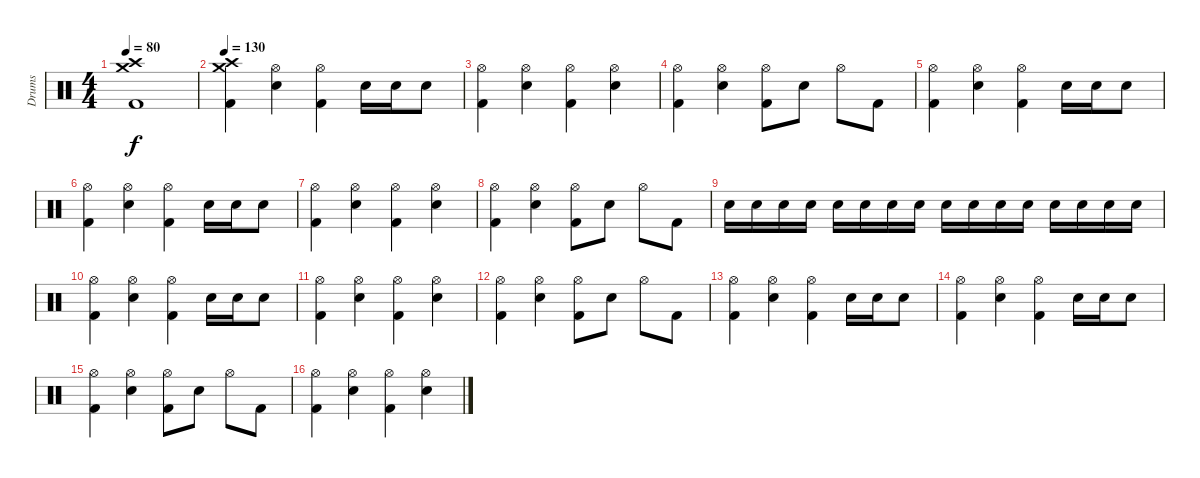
\track ("Drums" "Drums") {instrument percussion}
\staff {score}
\articulation defaults
\ts (4 4)
\tempo 80
\clef neutral
\ks c
("Crash medium (hit)" "Crash high (hit)" "Kick (hit) 2").1{dy f} |
\tempo 130
("Crash medium (hit)" "Crash high (hit)" "Kick (hit) 2").4 ("Hi-Hat (open)" "Snare (hit) 2").4 ("Hi-Hat (open)" "Kick (hit) 2").4 "Snare (hit) 2".16 "Snare (hit) 2".16 "Snare (hit) 2".8 |
("Hi-Hat (open)" "Kick (hit) 2").4 ("Hi-Hat (open)" "Snare (hit) 2").4 ("Hi-Hat (open)" "Kick (hit) 2").4 ("Hi-Hat (open)" "Snare (hit) 2").4 |
("Hi-Hat (open)" "Kick (hit) 2").4 ("Hi-Hat (open)" "Snare (hit) 2").4 ("Hi-Hat (open)" "Kick (hit) 2").8 "Snare (hit) 2".8 "Hi-Hat (open)".8 "Kick (hit) 2".8 |
("Hi-Hat (open)" "Kick (hit) 2").4 ("Hi-Hat (open)" "Snare (hit) 2").4 ("Hi-Hat (open)" "Kick (hit) 2").4 "Snare (hit) 2".16 "Snare (hit) 2".16 "Snare (hit) 2".8 |
("Hi-Hat (open)" "Kick (hit) 2").4 ("Hi-Hat (open)" "Snare (hit) 2").4 ("Hi-Hat (open)" "Kick (hit) 2").4 "Snare (hit) 2".16 "Snare (hit) 2".16 "Snare (hit) 2".8 |
("Hi-Hat (open)" "Kick (hit) 2").4 ("Hi-Hat (open)" "Snare (hit) 2").4 ("Hi-Hat (open)" "Kick (hit) 2").4 ("Hi-Hat (open)" "Snare (hit) 2").4 |
("Hi-Hat (open)" "Kick (hit) 2").4 ("Hi-Hat (open)" "Snare (hit) 2").4 ("Hi-Hat (open)" "Kick (hit) 2").8 "Snare (hit) 2".8 "Hi-Hat (open)".8 "Kick (hit) 2".8 |
"Snare (hit) 2".16 "Snare (hit) 2".16 "Snare (hit) 2".16 "Snare (hit) 2".16 "Snare (hit) 2".16 "Snare (hit) 2".16 "Snare (hit) 2".16 "Snare (hit) 2".16 "Snare (hit) 2".16 "Snare (hit) 2".16 "Snare (hit) 2".16 "Snare (hit) 2".16 "Snare (hit) 2".16 "Snare (hit) 2".16 "Snare (hit) 2".16 "Snare (hit) 2".16 |
("Hi-Hat (open)" "Kick (hit) 2").4 ("Hi-Hat (open)" "Snare (hit) 2").4 ("Hi-Hat (open)" "Kick (hit) 2").4 "Snare (hit) 2".16 "Snare (hit) 2".16 "Snare (hit) 2".8 |
("Hi-Hat (open)" "Kick (hit) 2").4 ("Hi-Hat (open)" "Snare (hit) 2").4 ("Hi-Hat (open)" "Kick (hit) 2").4 ("Hi-Hat (open)" "Snare (hit) 2").4 |
("Hi-Hat (open)" "Kick (hit) 2").4 ("Hi-Hat (open)" "Snare (hit) 2").4 ("Hi-Hat (open)" "Kick (hit) 2").8 "Snare (hit) 2".8 "Hi-Hat (open)".8 "Kick (hit) 2".8 |
("Hi-Hat (open)" "Kick (hit) 2").4 ("Hi-Hat (open)" "Snare (hit) 2").4 ("Hi-Hat (open)" "Kick (hit) 2").4 "Snare (hit) 2".16 "Snare (hit) 2".16 "Snare (hit) 2".8 |
("Hi-Hat (open)" "Kick (hit) 2").4 ("Hi-Hat (open)" "Snare (hit) 2").4 ("Hi-Hat (open)" "Kick (hit) 2").4 "Snare (hit) 2".16 "Snare (hit) 2".16 "Snare (hit) 2".8 |
("Hi-Hat (open)" "Kick (hit) 2").4 ("Hi-Hat (open)" "Snare (hit) 2").4 ("Hi-Hat (open)" "Kick (hit) 2").8 "Snare (hit) 2".8 "Hi-Hat (open)".8 "Kick (hit) 2".8 |
("Hi-Hat (open)" "Kick (hit) 2").4 ("Hi-Hat (open)" "Snare (hit) 2").4 ("Hi-Hat (open)" "Kick (hit) 2").4 ("Hi-Hat (open)" "Snare (hit) 2").4
